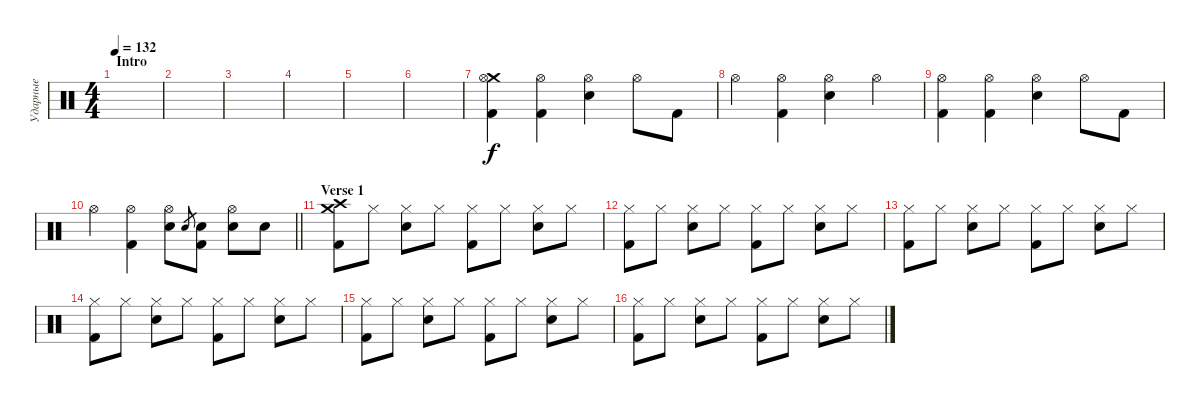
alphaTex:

\track ("Ударные" "Ударные") {instrument percussion}
\staff {score}
\articulation defaults
\ts (4 4)
\section ("" "Intro")
\tempo 132
\clef neutral
\ks c
|
|
|
|
|
|
("Crash medium (hit)" "Hi-Hat (open)" "Kick (hit) 2").4 ("Hi-Hat (open)" "Kick (hit) 2").4 ("Hi-Hat (open)" "Snare (hit) 2").4 "Hi-Hat (open)".8 "Kick (hit) 2".8 |
"Hi-Hat (open)".4 ("Hi-Hat (open)" "Kick (hit) 2").4 ("Hi-Hat (open)" "Snare (hit) 2").4 "Hi-Hat (open)".4 |
("Hi-Hat (open)" "Kick (hit) 2").4 ("Hi-Hat (open)" "Kick (hit) 2").4 ("Hi-Hat (open)" "Snare (hit) 2").4 "Hi-Hat (open)".8 "Kick (hit) 2".8 |
\barLineRight lightlight "Hi-Hat (open)".4
("Hi-Hat (open)" "Kick (hit) 2").4 ("Hi-Hat (open)" "Snare (hit) 2").8 "Snare (hit) 2".8{gr} ("Snare (hit) 2" "Kick (hit) 2").8 ("Hi-Hat (open)" "Snare (hit) 2").8 "Snare (hit) 2".8 |
\section ("" "Verse 1")
("Crash medium (hit)" "Crash high (hit)" "Kick (hit) 2").8 "Hi-Hat (closed)".8 ("Hi-Hat (closed)" "Snare (hit) 2").8 "Hi-Hat (closed)".8 ("Hi-Hat (closed)" "Kick (hit) 2").8 "Hi-Hat (closed)".8 ("Hi-Hat (closed)" "Snare (hit) 2").8 "Hi-Hat (closed)".8 |
("Hi-Hat (closed)" "Kick (hit) 2").8 "Hi-Hat (closed)".8 ("Hi-Hat (closed)" "Snare (hit) 2").8 "Hi-Hat (closed)".8 ("Hi-Hat (closed)" "Kick (hit) 2").8 "Hi-Hat (closed)".8 ("Hi-Hat (closed)" "Snare (hit) 2").8 "Hi-Hat (closed)".8 |
("Hi-Hat (closed)" "Kick (hit) 2").8 "Hi-Hat (closed)".8 ("Hi-Hat (closed)" "Snare (hit) 2").8 "Hi-Hat (closed)".8 ("Hi-Hat (closed)" "Kick (hit) 2").8 "Hi-Hat (closed)".8 ("Hi-Hat (closed)" "Snare (hit) 2").8 "Hi-Hat (closed)".8 |
("Hi-Hat (closed)" "Kick (hit) 2").8 "Hi-Hat (closed)".8 ("Hi-Hat (closed)" "Snare (hit) 2").8 "Hi-Hat (closed)".8 ("Hi-Hat (closed)" "Kick (hit) 2").8 "Hi-Hat (closed)".8 ("Hi-Hat (closed)" "Snare (hit) 2").8 "Hi-Hat (closed)".8 |
("Hi-Hat (closed)" "Kick (hit) 2").8 "Hi-Hat (closed)".8 ("Hi-Hat (closed)" "Snare (hit) 2").8 "Hi-Hat (closed)".8 ("Hi-Hat (closed)" "Kick (hit) 2").8 "Hi-Hat (closed)".8 ("Hi-Hat (closed)" "Snare (hit) 2").8 "Hi-Hat (closed)".8 |
("Hi-Hat (closed)" "Kick (hit) 2").8 "Hi-Hat (closed)".8 ("Hi-Hat (closed)" "Snare (hit) 2").8 "Hi-Hat (closed)".8 ("Hi-Hat (closed)" "Kick (hit) 2").8 "Hi-Hat (closed)".8 ("Hi-Hat (closed)" "Snare (hit) 2").8 "Hi-Hat (closed)".8
